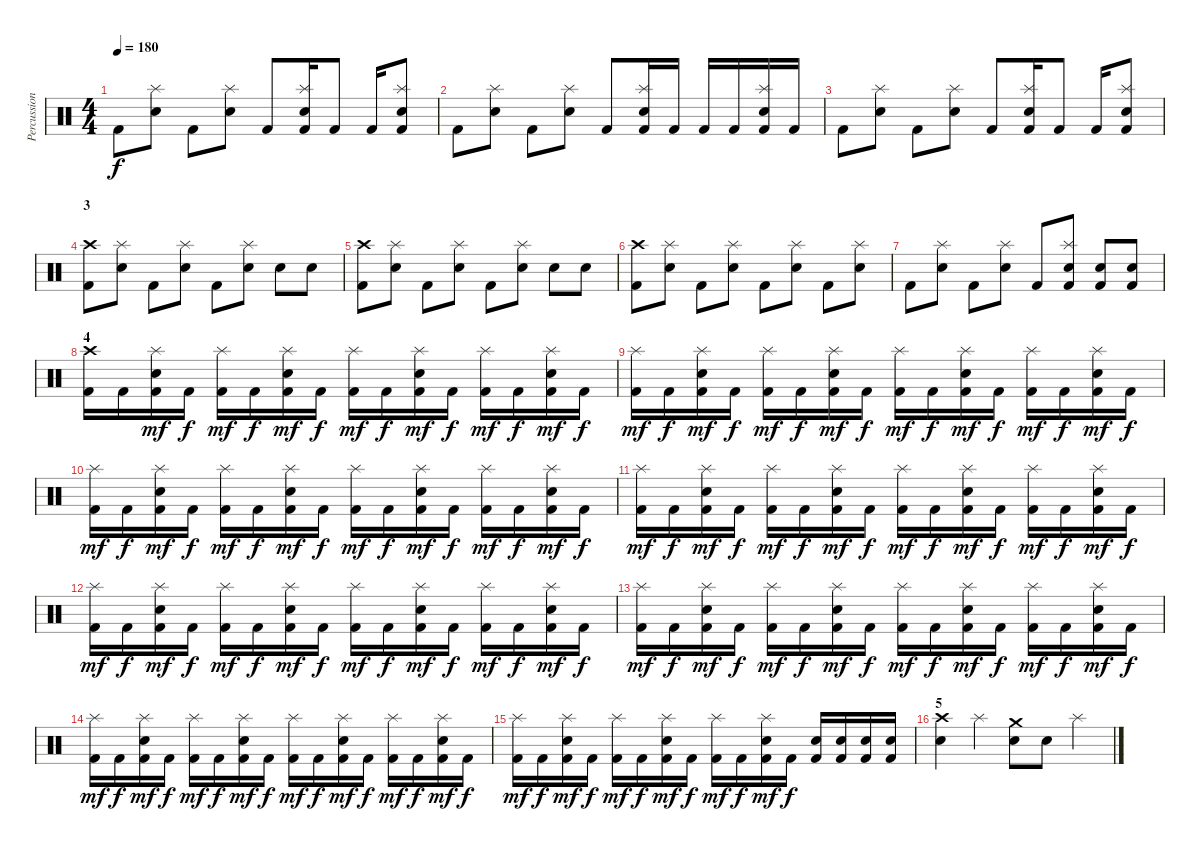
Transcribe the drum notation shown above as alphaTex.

\track ("Percussion" "Percussion") {instrument percussion}
\staff {score}
\articulation defaults
\ts (4 4)
\tempo 180
\clef neutral
\ks c "Kick (hit) 2".8{dy f}
("Splash (hit)" "Snare (hit) 2").8 "Kick (hit) 2".8 ("Splash (hit)" "Snare (hit) 2").8 "Kick (hit) 2".8 ("Splash (hit)" "Snare (hit) 2" "Kick (hit) 2").16 "Kick (hit) 2".8 "Kick (hit) 2".16 ("Splash (hit)" "Snare (hit) 2" "Kick (hit) 2").8 |
"Kick (hit) 2".8 ("Splash (hit)" "Snare (hit) 2").8 "Kick (hit) 2".8 ("Splash (hit)" "Snare (hit) 2").8 "Kick (hit) 2".8 ("Splash (hit)" "Snare (hit) 2" "Kick (hit) 2").16 "Kick (hit) 2".16 "Kick (hit) 2".16 "Kick (hit) 2".16 ("Splash (hit)" "Snare (hit) 2" "Kick (hit) 2").16 "Kick (hit) 2".16 |
"Kick (hit) 2".8 ("Splash (hit)" "Snare (hit) 2").8 "Kick (hit) 2".8 ("Splash (hit)" "Snare (hit) 2").8 "Kick (hit) 2".8 ("Splash (hit)" "Snare (hit) 2" "Kick (hit) 2").16 "Kick (hit) 2".8 "Kick (hit) 2".16 ("Splash (hit)" "Snare (hit) 2" "Kick (hit) 2").8 |
\section ("" "3")
("Crash high (hit)" "Kick (hit) 2").8 ("Splash (hit)" "Snare (hit) 2").8 "Kick (hit) 2".8 ("Splash (hit)" "Snare (hit) 2").8 "Kick (hit) 2".8 ("Splash (hit)" "Snare (hit) 2").8 "Snare (hit) 2".8 "Snare (hit) 2".8 |
("Crash high (hit)" "Kick (hit) 2").8 ("Splash (hit)" "Snare (hit) 2").8 "Kick (hit) 2".8 ("Splash (hit)" "Snare (hit) 2").8 "Kick (hit) 2".8 ("Splash (hit)" "Snare (hit) 2").8 "Snare (hit) 2".8 "Snare (hit) 2".8 |
("Crash high (hit)" "Kick (hit) 2").8 ("Splash (hit)" "Snare (hit) 2").8 "Kick (hit) 2".8 ("Splash (hit)" "Snare (hit) 2").8 "Kick (hit) 2".8 ("Splash (hit)" "Snare (hit) 2").8 "Kick (hit) 2".8 ("Splash (hit)" "Snare (hit) 2").8 |
"Kick (hit) 2".8 ("Splash (hit)" "Snare (hit) 2").8 "Kick (hit) 2".8 ("Splash (hit)" "Snare (hit) 2").8 "Kick (hit) 2".8 ("Splash (hit)" "Snare (hit) 2" "Kick (hit) 2").8 ("Snare (hit) 2" "Kick (hit) 2").8 ("Snare (hit) 2" "Kick (hit) 2").8 |
\section ("" "4")
("Crash high (hit)" "Kick (hit) 2").16 "Kick (hit) 2".16 ("Splash (hit)" "Snare (hit) 2" "Kick (hit) 2").16{dy mf} "Kick (hit) 2".16{dy f} ("Splash (hit)" "Kick (hit) 2").16{dy mf} "Kick (hit) 2".16{dy f} ("Splash (hit)" "Snare (hit) 2" "Kick (hit) 2").16{dy mf} "Kick (hit) 2".16{dy f} ("Splash (hit)" "Kick (hit) 2").16{dy mf} "Kick (hit) 2".16{dy f} ("Splash (hit)" "Snare (hit) 2" "Kick (hit) 2").16{dy mf} "Kick (hit) 2".16{dy f} ("Splash (hit)" "Kick (hit) 2").16{dy mf} "Kick (hit) 2".16{dy f} ("Splash (hit)" "Snare (hit) 2" "Kick (hit) 2").16{dy mf} "Kick (hit) 2".16{dy f} |
("Splash (hit)" "Kick (hit) 2").16{dy mf} "Kick (hit) 2".16{dy f} ("Splash (hit)" "Snare (hit) 2" "Kick (hit) 2").16{dy mf} "Kick (hit) 2".16{dy f} ("Splash (hit)" "Kick (hit) 2").16{dy mf} "Kick (hit) 2".16{dy f} ("Splash (hit)" "Snare (hit) 2" "Kick (hit) 2").16{dy mf} "Kick (hit) 2".16{dy f} ("Splash (hit)" "Kick (hit) 2").16{dy mf} "Kick (hit) 2".16{dy f} ("Splash (hit)" "Snare (hit) 2" "Kick (hit) 2").16{dy mf} "Kick (hit) 2".16{dy f} ("Splash (hit)" "Kick (hit) 2").16{dy mf} "Kick (hit) 2".16{dy f} ("Splash (hit)" "Snare (hit) 2" "Kick (hit) 2").16{dy mf} "Kick (hit) 2".16{dy f} |
("Splash (hit)" "Kick (hit) 2").16{dy mf} "Kick (hit) 2".16{dy f} ("Splash (hit)" "Snare (hit) 2" "Kick (hit) 2").16{dy mf} "Kick (hit) 2".16{dy f} ("Splash (hit)" "Kick (hit) 2").16{dy mf} "Kick (hit) 2".16{dy f} ("Splash (hit)" "Snare (hit) 2" "Kick (hit) 2").16{dy mf} "Kick (hit) 2".16{dy f} ("Splash (hit)" "Kick (hit) 2").16{dy mf} "Kick (hit) 2".16{dy f} ("Splash (hit)" "Snare (hit) 2" "Kick (hit) 2").16{dy mf} "Kick (hit) 2".16{dy f} ("Splash (hit)" "Kick (hit) 2").16{dy mf} "Kick (hit) 2".16{dy f} ("Splash (hit)" "Snare (hit) 2" "Kick (hit) 2").16{dy mf} "Kick (hit) 2".16{dy f} |
("Splash (hit)" "Kick (hit) 2").16{dy mf} "Kick (hit) 2".16{dy f} ("Splash (hit)" "Snare (hit) 2" "Kick (hit) 2").16{dy mf} "Kick (hit) 2".16{dy f} ("Splash (hit)" "Kick (hit) 2").16{dy mf} "Kick (hit) 2".16{dy f} ("Splash (hit)" "Snare (hit) 2" "Kick (hit) 2").16{dy mf} "Kick (hit) 2".16{dy f} ("Splash (hit)" "Kick (hit) 2").16{dy mf} "Kick (hit) 2".16{dy f} ("Splash (hit)" "Snare (hit) 2" "Kick (hit) 2").16{dy mf} "Kick (hit) 2".16{dy f} ("Splash (hit)" "Kick (hit) 2").16{dy mf} "Kick (hit) 2".16{dy f} ("Splash (hit)" "Snare (hit) 2" "Kick (hit) 2").16{dy mf} "Kick (hit) 2".16{dy f} |
("Splash (hit)" "Kick (hit) 2").16{dy mf} "Kick (hit) 2".16{dy f} ("Splash (hit)" "Snare (hit) 2" "Kick (hit) 2").16{dy mf} "Kick (hit) 2".16{dy f} ("Splash (hit)" "Kick (hit) 2").16{dy mf} "Kick (hit) 2".16{dy f} ("Splash (hit)" "Snare (hit) 2" "Kick (hit) 2").16{dy mf} "Kick (hit) 2".16{dy f} ("Splash (hit)" "Kick (hit) 2").16{dy mf} "Kick (hit) 2".16{dy f} ("Splash (hit)" "Snare (hit) 2" "Kick (hit) 2").16{dy mf} "Kick (hit) 2".16{dy f} ("Splash (hit)" "Kick (hit) 2").16{dy mf} "Kick (hit) 2".16{dy f} ("Splash (hit)" "Snare (hit) 2" "Kick (hit) 2").16{dy mf} "Kick (hit) 2".16{dy f} |
("Splash (hit)" "Kick (hit) 2").16{dy mf} "Kick (hit) 2".16{dy f} ("Splash (hit)" "Snare (hit) 2" "Kick (hit) 2").16{dy mf} "Kick (hit) 2".16{dy f} ("Splash (hit)" "Kick (hit) 2").16{dy mf} "Kick (hit) 2".16{dy f} ("Splash (hit)" "Snare (hit) 2" "Kick (hit) 2").16{dy mf} "Kick (hit) 2".16{dy f} ("Splash (hit)" "Kick (hit) 2").16{dy mf} "Kick (hit) 2".16{dy f} ("Splash (hit)" "Snare (hit) 2" "Kick (hit) 2").16{dy mf} "Kick (hit) 2".16{dy f} ("Splash (hit)" "Kick (hit) 2").16{dy mf} "Kick (hit) 2".16{dy f} ("Splash (hit)" "Snare (hit) 2" "Kick (hit) 2").16{dy mf} "Kick (hit) 2".16{dy f} |
("Splash (hit)" "Kick (hit) 2").16{dy mf} "Kick (hit) 2".16{dy f} ("Splash (hit)" "Snare (hit) 2" "Kick (hit) 2").16{dy mf} "Kick (hit) 2".16{dy f} ("Splash (hit)" "Kick (hit) 2").16{dy mf} "Kick (hit) 2".16{dy f} ("Splash (hit)" "Snare (hit) 2" "Kick (hit) 2").16{dy mf} "Kick (hit) 2".16{dy f} ("Splash (hit)" "Kick (hit) 2").16{dy mf} "Kick (hit) 2".16{dy f} ("Splash (hit)" "Snare (hit) 2" "Kick (hit) 2").16{dy mf} "Kick (hit) 2".16{dy f} ("Splash (hit)" "Kick (hit) 2").16{dy mf} "Kick (hit) 2".16{dy f} ("Splash (hit)" "Snare (hit) 2" "Kick (hit) 2").16{dy mf} "Kick (hit) 2".16{dy f} |
("Splash (hit)" "Kick (hit) 2").16{dy mf} "Kick (hit) 2".16{dy f} ("Splash (hit)" "Snare (hit) 2" "Kick (hit) 2").16{dy mf} "Kick (hit) 2".16{dy f} ("Splash (hit)" "Kick (hit) 2").16{dy mf} "Kick (hit) 2".16{dy f} ("Splash (hit)" "Snare (hit) 2" "Kick (hit) 2").16{dy mf} "Kick (hit) 2".16{dy f} ("Splash (hit)" "Kick (hit) 2").16{dy mf} "Kick (hit) 2".16{dy f} ("Splash (hit)" "Snare (hit) 2" "Kick (hit) 2").16{dy mf} "Kick (hit) 2".16{dy f} ("Snare (hit) 2" "Kick (hit) 2").16 ("Snare (hit) 2" "Kick (hit) 2").16 ("Snare (hit) 2" "Kick (hit) 2").16 ("Snare (hit) 2" "Kick (hit) 2").16 |
\section ("" "5")
("Crash high (hit)" "Snare (hit) 2").4 "Splash (hit)".4 ("Crash medium (hit)" "Snare (hit) 2").8 "Snare (hit) 2".8 "Splash (hit)".4
